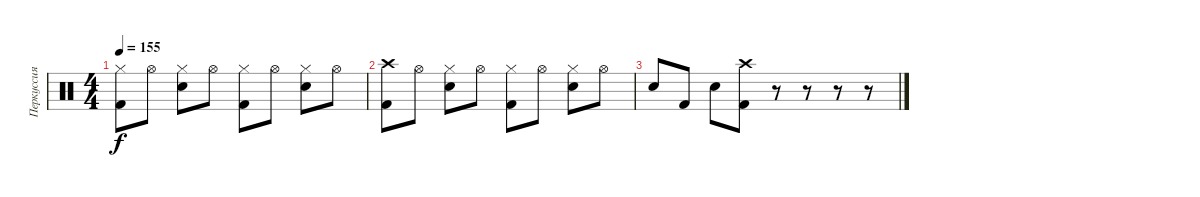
\track ("Перкуссия" "Перкуссия") {instrument percussion}
\staff {score}
\articulation defaults
\ts (4 4)
\tempo 155
\clef neutral
\ks c
("Hi-Hat (closed)" "Kick (hit) 2").8{dy f} "Hi-Hat (open)".8 ("Hi-Hat (closed)" "Snare (hit) 2").8 "Hi-Hat (open)".8 ("Hi-Hat (closed)" "Kick (hit) 2").8 "Hi-Hat (open)".8 ("Hi-Hat (closed)" "Snare (hit) 2").8 "Hi-Hat (open)".8 |
("Crash high (hit)" "Kick (hit) 2").8 "Hi-Hat (open)".8 ("Hi-Hat (closed)" "Snare (hit) 2").8 "Hi-Hat (open)".8 ("Hi-Hat (closed)" "Kick (hit) 2").8 "Hi-Hat (open)".8 ("Hi-Hat (closed)" "Snare (hit) 2").8 "Hi-Hat (open)".8 |
"Snare (hit) 2".8 "Kick (hit) 2".8 "Snare (hit) 2".8 ("Crash high (hit)" "Kick (hit) 2").8 r.8 r.8 r.8 r.8
